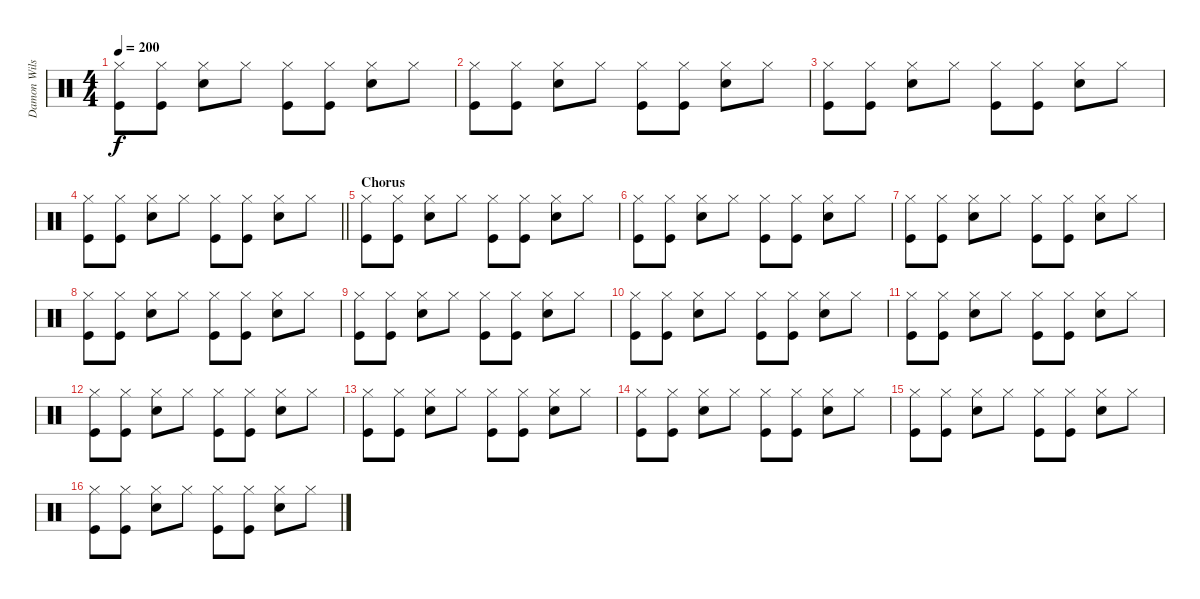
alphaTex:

\track ("Damon Wilson" "Damon Wils") {instrument percussion}
\staff {score}
\articulation defaults
\ts (4 4)
\tempo 200
\clef neutral
\ks c
("Hi-Hat (closed)" "Kick (hit)").8{dy f} ("Hi-Hat (closed)" "Kick (hit)").8 ("Hi-Hat (closed)" "Snare (hit) 2").8 "Hi-Hat (closed)".8 ("Hi-Hat (closed)" "Kick (hit)").8 ("Hi-Hat (closed)" "Kick (hit)").8 ("Hi-Hat (closed)" "Snare (hit) 2").8 "Hi-Hat (closed)".8 |
("Hi-Hat (closed)" "Kick (hit)").8 ("Hi-Hat (closed)" "Kick (hit)").8 ("Hi-Hat (closed)" "Snare (hit) 2").8 "Hi-Hat (closed)".8 ("Hi-Hat (closed)" "Kick (hit)").8 ("Hi-Hat (closed)" "Kick (hit)").8 ("Hi-Hat (closed)" "Snare (hit) 2").8 "Hi-Hat (closed)".8 |
("Hi-Hat (closed)" "Kick (hit)").8 ("Hi-Hat (closed)" "Kick (hit)").8 ("Hi-Hat (closed)" "Snare (hit) 2").8 "Hi-Hat (closed)".8 ("Hi-Hat (closed)" "Kick (hit)").8 ("Hi-Hat (closed)" "Kick (hit)").8 ("Hi-Hat (closed)" "Snare (hit) 2").8 "Hi-Hat (closed)".8 |
\barLineRight lightlight
("Hi-Hat (closed)" "Kick (hit)").8 ("Hi-Hat (closed)" "Kick (hit)").8 ("Hi-Hat (closed)" "Snare (hit) 2").8 "Hi-Hat (closed)".8 ("Hi-Hat (closed)" "Kick (hit)").8 ("Hi-Hat (closed)" "Kick (hit)").8 ("Hi-Hat (closed)" "Snare (hit) 2").8 "Hi-Hat (closed)".8 |
\section ("" "Chorus")
("Hi-Hat (closed)" "Kick (hit)").8 ("Hi-Hat (closed)" "Kick (hit)").8 ("Hi-Hat (closed)" "Snare (hit) 2").8 "Hi-Hat (closed)".8 ("Hi-Hat (closed)" "Kick (hit)").8 ("Hi-Hat (closed)" "Kick (hit)").8 ("Hi-Hat (closed)" "Snare (hit) 2").8 "Hi-Hat (closed)".8 |
("Hi-Hat (closed)" "Kick (hit)").8 ("Hi-Hat (closed)" "Kick (hit)").8 ("Hi-Hat (closed)" "Snare (hit) 2").8 "Hi-Hat (closed)".8 ("Hi-Hat (closed)" "Kick (hit)").8 ("Hi-Hat (closed)" "Kick (hit)").8 ("Hi-Hat (closed)" "Snare (hit) 2").8 "Hi-Hat (closed)".8 |
("Hi-Hat (closed)" "Kick (hit)").8 ("Hi-Hat (closed)" "Kick (hit)").8 ("Hi-Hat (closed)" "Snare (hit) 2").8 "Hi-Hat (closed)".8 ("Hi-Hat (closed)" "Kick (hit)").8 ("Hi-Hat (closed)" "Kick (hit)").8 ("Hi-Hat (closed)" "Snare (hit) 2").8 "Hi-Hat (closed)".8 |
("Hi-Hat (closed)" "Kick (hit)").8 ("Hi-Hat (closed)" "Kick (hit)").8 ("Hi-Hat (closed)" "Snare (hit) 2").8 "Hi-Hat (closed)".8 ("Hi-Hat (closed)" "Kick (hit)").8 ("Hi-Hat (closed)" "Kick (hit)").8 ("Hi-Hat (closed)" "Snare (hit) 2").8 "Hi-Hat (closed)".8 |
("Hi-Hat (closed)" "Kick (hit)").8 ("Hi-Hat (closed)" "Kick (hit)").8 ("Hi-Hat (closed)" "Snare (hit) 2").8 "Hi-Hat (closed)".8 ("Hi-Hat (closed)" "Kick (hit)").8 ("Hi-Hat (closed)" "Kick (hit)").8 ("Hi-Hat (closed)" "Snare (hit) 2").8 "Hi-Hat (closed)".8 |
("Hi-Hat (closed)" "Kick (hit)").8 ("Hi-Hat (closed)" "Kick (hit)").8 ("Hi-Hat (closed)" "Snare (hit) 2").8 "Hi-Hat (closed)".8 ("Hi-Hat (closed)" "Kick (hit)").8 ("Hi-Hat (closed)" "Kick (hit)").8 ("Hi-Hat (closed)" "Snare (hit) 2").8 "Hi-Hat (closed)".8 |
("Hi-Hat (closed)" "Kick (hit)").8 ("Hi-Hat (closed)" "Kick (hit)").8 ("Hi-Hat (closed)" "Snare (hit) 2").8 "Hi-Hat (closed)".8 ("Hi-Hat (closed)" "Kick (hit)").8 ("Hi-Hat (closed)" "Kick (hit)").8 ("Hi-Hat (closed)" "Snare (hit) 2").8 "Hi-Hat (closed)".8 |
("Hi-Hat (closed)" "Kick (hit)").8 ("Hi-Hat (closed)" "Kick (hit)").8 ("Hi-Hat (closed)" "Snare (hit) 2").8 "Hi-Hat (closed)".8 ("Hi-Hat (closed)" "Kick (hit)").8 ("Hi-Hat (closed)" "Kick (hit)").8 ("Hi-Hat (closed)" "Snare (hit) 2").8 "Hi-Hat (closed)".8 |
("Hi-Hat (closed)" "Kick (hit)").8 ("Hi-Hat (closed)" "Kick (hit)").8 ("Hi-Hat (closed)" "Snare (hit) 2").8 "Hi-Hat (closed)".8 ("Hi-Hat (closed)" "Kick (hit)").8 ("Hi-Hat (closed)" "Kick (hit)").8 ("Hi-Hat (closed)" "Snare (hit) 2").8 "Hi-Hat (closed)".8 |
("Hi-Hat (closed)" "Kick (hit)").8 ("Hi-Hat (closed)" "Kick (hit)").8 ("Hi-Hat (closed)" "Snare (hit) 2").8 "Hi-Hat (closed)".8 ("Hi-Hat (closed)" "Kick (hit)").8 ("Hi-Hat (closed)" "Kick (hit)").8 ("Hi-Hat (closed)" "Snare (hit) 2").8 "Hi-Hat (closed)".8 |
("Hi-Hat (closed)" "Kick (hit)").8 ("Hi-Hat (closed)" "Kick (hit)").8 ("Hi-Hat (closed)" "Snare (hit) 2").8 "Hi-Hat (closed)".8 ("Hi-Hat (closed)" "Kick (hit)").8 ("Hi-Hat (closed)" "Kick (hit)").8 ("Hi-Hat (closed)" "Snare (hit) 2").8 "Hi-Hat (closed)".8 |
("Hi-Hat (closed)" "Kick (hit)").8 ("Hi-Hat (closed)" "Kick (hit)").8 ("Hi-Hat (closed)" "Snare (hit) 2").8 "Hi-Hat (closed)".8 ("Hi-Hat (closed)" "Kick (hit)").8 ("Hi-Hat (closed)" "Kick (hit)").8 ("Hi-Hat (closed)" "Snare (hit) 2").8 "Hi-Hat (closed)".8
